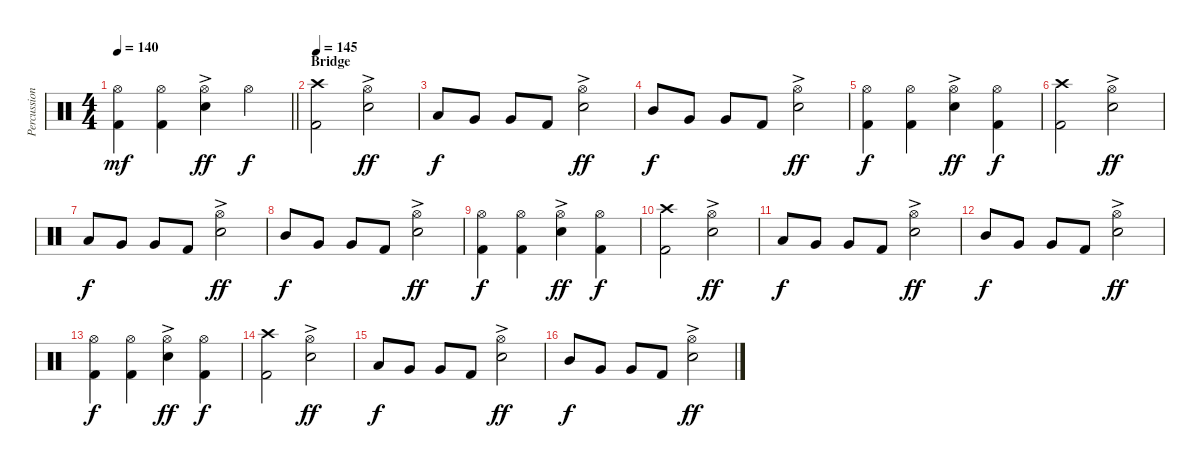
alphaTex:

\track ("Percussion" "Percussion") {instrument percussion}
\staff {score}
\articulation defaults
\ts (4 4)
\tempo 140
\clef neutral
\barLineRight lightlight
\ks c
("Hi-Hat (open)" "Kick (hit) 2").4{dy mf} ("Hi-Hat (open)" "Kick (hit) 2").4 ("Hi-Hat (open)" "Electric Snare (hit)"{ac}).4{dy ff} "Hi-Hat (open)".4{dy f} |
\section ("" "Bridge")
\tempo 145
("Crash high (hit)" "Kick (hit) 2").2 ("Hi-Hat (open)" "Electric Snare (hit)"{ac}).2{dy ff} |
"Low Tom (hit)".8{dy f} "Very Low Tom (hit)".8 "Very Low Tom (hit)".8 "Kick (hit) 2".8 ("Hi-Hat (open)" "Electric Snare (hit)"{ac}).2{dy ff} |
"Mid Tom (hit)".8{dy f} "Very Low Tom (hit)".8 "Very Low Tom (hit)".8 "Kick (hit) 2".8 ("Hi-Hat (open)" "Electric Snare (hit)"{ac}).2{dy ff} |
("Hi-Hat (open)" "Kick (hit) 2").4{dy f} ("Hi-Hat (open)" "Kick (hit) 2").4 ("Hi-Hat (open)" "Electric Snare (hit)"{ac}).4{dy ff} ("Hi-Hat (open)" "Kick (hit) 2").4{dy f} |
("Crash high (hit)" "Kick (hit) 2").2 ("Hi-Hat (open)" "Electric Snare (hit)"{ac}).2{dy ff} |
"Low Tom (hit)".8{dy f} "Very Low Tom (hit)".8 "Very Low Tom (hit)".8 "Kick (hit) 2".8 ("Hi-Hat (open)" "Electric Snare (hit)"{ac}).2{dy ff} |
"Mid Tom (hit)".8{dy f} "Very Low Tom (hit)".8 "Very Low Tom (hit)".8 "Kick (hit) 2".8 ("Hi-Hat (open)" "Electric Snare (hit)"{ac}).2{dy ff} |
("Hi-Hat (open)" "Kick (hit) 2").4{dy f} ("Hi-Hat (open)" "Kick (hit) 2").4 ("Hi-Hat (open)" "Electric Snare (hit)"{ac}).4{dy ff} ("Hi-Hat (open)" "Kick (hit) 2").4{dy f} |
("Crash high (hit)" "Kick (hit) 2").2 ("Hi-Hat (open)" "Electric Snare (hit)"{ac}).2{dy ff} |
"Low Tom (hit)".8{dy f} "Very Low Tom (hit)".8 "Very Low Tom (hit)".8 "Kick (hit) 2".8 ("Hi-Hat (open)" "Electric Snare (hit)"{ac}).2{dy ff} |
"Mid Tom (hit)".8{dy f} "Very Low Tom (hit)".8 "Very Low Tom (hit)".8 "Kick (hit) 2".8 ("Hi-Hat (open)" "Electric Snare (hit)"{ac}).2{dy ff} |
("Hi-Hat (open)" "Kick (hit) 2").4{dy f} ("Hi-Hat (open)" "Kick (hit) 2").4 ("Hi-Hat (open)" "Electric Snare (hit)"{ac}).4{dy ff} ("Hi-Hat (open)" "Kick (hit) 2").4{dy f} |
("Crash high (hit)" "Kick (hit) 2").2 ("Hi-Hat (open)" "Electric Snare (hit)"{ac}).2{dy ff} |
"Low Tom (hit)".8{dy f} "Very Low Tom (hit)".8 "Very Low Tom (hit)".8 "Kick (hit) 2".8 ("Hi-Hat (open)" "Electric Snare (hit)"{ac}).2{dy ff} |
"Mid Tom (hit)".8{dy f} "Very Low Tom (hit)".8 "Very Low Tom (hit)".8 "Kick (hit) 2".8 ("Hi-Hat (open)" "Electric Snare (hit)"{ac}).2{dy ff}
